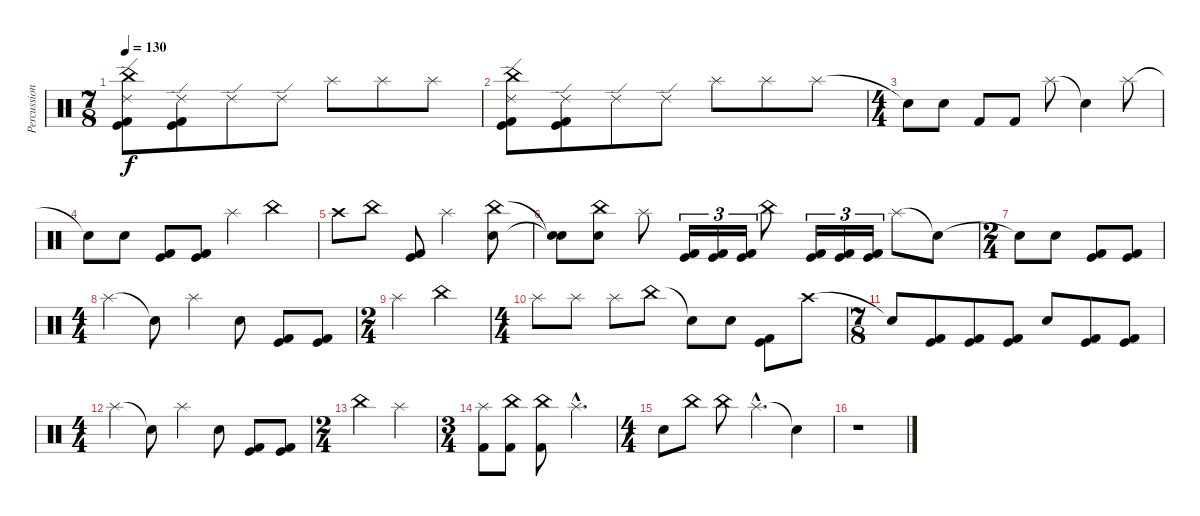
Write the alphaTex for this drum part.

\track ("Percussion" "Percussion") {instrument percussion}
\staff {score}
\articulation defaults
\ts (7 8)
\tempo 130
\clef neutral
\ks c
("China (hit)" "Ride (edge) 2" "Kick (hit)" "Kick (hit) 2").8{dy f} ("Ride (edge) 2" "Kick (hit)" "Kick (hit) 2").8 "Ride (edge) 2".8 "Ride (edge) 2".8 "Splash (hit)".8 "Splash (hit)".8 "Splash (hit)".8 |
("China (hit)" "Ride (edge) 2" "Kick (hit)" "Kick (hit) 2").8 ("Ride (edge) 2" "Kick (hit)" "Kick (hit) 2").8 "Ride (edge) 2".8 "Ride (edge) 2".8 "Splash (hit)".8 "Splash (hit)".8 "Splash (hit)".8 |
\ts (4 4)
"Snare (hit)"{t}.8 "Snare (hit) 2".8 "Kick (hit) 2".8 "Kick (hit) 2".8 "Splash (hit)".8 "Snare (hit)"{t}.4 "Splash (hit)".8 |
"Snare (hit)"{t}.8 "Snare (hit) 2".8 ("Kick (hit)" "Kick (hit) 2").8 ("Kick (hit)" "Kick (hit) 2").8 "Splash (hit)".4 "China (hit)".4 |
"Crash high (hit)".8 "China (hit)".8 ("Kick (hit)" "Kick (hit) 2").8 "Splash (hit)".2 ("China (hit)" "Snare (hit) 2").8 |
("Snare (hit)"{t} "Snare (hit)"{t}).8 ("China (hit)" "Snare (hit) 2").8 "Splash (hit)".8 ("Kick (hit)" "Kick (hit) 2").16{tu (3 2)} ("Kick (hit)" "Kick (hit) 2").16{tu (3 2)} ("Kick (hit)" "Kick (hit) 2").16{tu (3 2)} "China (hit)".8 ("Kick (hit)" "Kick (hit) 2").16{tu (3 2)} ("Kick (hit)" "Kick (hit) 2").16{tu (3 2)} ("Kick (hit)" "Kick (hit) 2").16{tu (3 2)} "Splash (hit)".8 "Snare (hit)"{t}.8 |
\ts (2 4)
"Snare (hit)"{t}.8 "Snare (hit) 2".8 ("Kick (hit)" "Kick (hit) 2").8 ("Kick (hit)" "Kick (hit) 2").8 |
\ts (4 4)
"Splash (hit)".4 "Snare (hit)"{t}.8 "Splash (hit)".4 "Snare (hit) 2".8 ("Kick (hit)" "Kick (hit) 2").8 ("Kick (hit)" "Kick (hit) 2").8 |
\ts (2 4)
"Splash (hit)".4 "China (hit)".4 |
\ts (4 4)
"Splash (hit)".8 "Splash (hit)".8 "Splash (hit)".8 "China (hit)".8 "Snare (hit)"{t}.8 "Snare (hit) 2".8 ("Kick (hit)" "Kick (hit) 2").8 "Crash high (hit)".8 |
\ts (7 8)
"Snare (hit)"{t}.8 ("Kick (hit)" "Kick (hit) 2").8 ("Kick (hit)" "Kick (hit) 2").8 ("Kick (hit)" "Kick (hit) 2").8 "Snare (hit) 2".8 ("Kick (hit)" "Kick (hit) 2").8 ("Kick (hit)" "Kick (hit) 2").8 |
\ts (4 4)
"Splash (hit)".4 "Snare (hit)"{t}.8 "Splash (hit)".4 "Snare (hit) 2".8 ("Kick (hit)" "Kick (hit) 2").8 ("Kick (hit)" "Kick (hit) 2").8 |
\ts (2 4)
"China (hit)".4 "Splash (hit)".4 |
\ts (3 4)
("Splash (hit)" "Kick (hit) 2").8 ("China (hit)" "Kick (hit) 2").8 ("China (hit)" "Kick (hit) 2").8 "Splash (hit)"{hac}.4{d} |
\ts (4 4)
"Snare (hit) 2".8 "China (hit)".8 "China (hit)".8 "Splash (hit)"{hac}.4{d} "Snare (hit)"{t}.4 |
r.1
